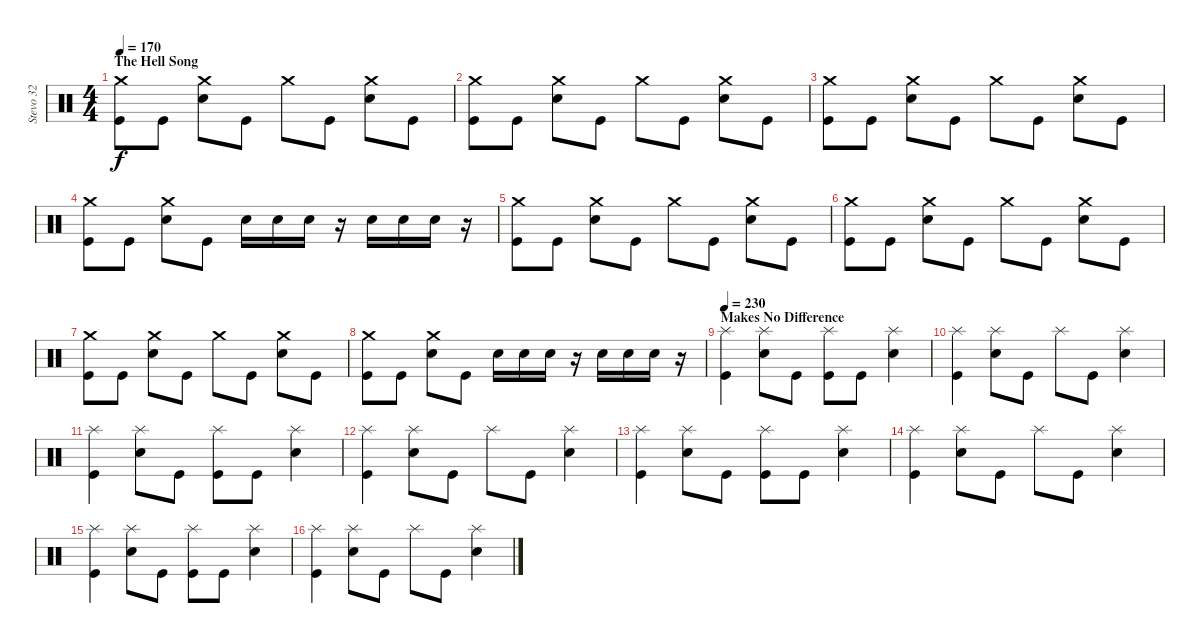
\track ("Stevo 32" "Stevo 32") {instrument percussion}
\staff {score}
\articulation defaults
\ts (4 4)
\section ("" "The Hell Song")
\tempo 170
\clef neutral
\ks c
("Crash medium (hit)" "Kick (hit)").8{dy f} "Kick (hit)".8 ("Crash medium (hit)" "Snare (hit) 2").8 "Kick (hit)".8 "Crash medium (hit)".8 "Kick (hit)".8 ("Crash medium (hit)" "Snare (hit) 2").8 "Kick (hit)".8 |
("Crash medium (hit)" "Kick (hit)").8 "Kick (hit)".8 ("Crash medium (hit)" "Snare (hit) 2").8 "Kick (hit)".8 "Crash medium (hit)".8 "Kick (hit)".8 ("Crash medium (hit)" "Snare (hit) 2").8 "Kick (hit)".8 |
("Crash medium (hit)" "Kick (hit)").8 "Kick (hit)".8 ("Crash medium (hit)" "Snare (hit) 2").8 "Kick (hit)".8 "Crash medium (hit)".8 "Kick (hit)".8 ("Crash medium (hit)" "Snare (hit) 2").8 "Kick (hit)".8 |
("Crash medium (hit)" "Kick (hit)").8 "Kick (hit)".8 ("Crash medium (hit)" "Snare (hit) 2").8 "Kick (hit)".8 "Snare (hit) 2".16 "Snare (hit) 2".16 "Snare (hit) 2".16 r.16 "Snare (hit) 2".16 "Snare (hit) 2".16 "Snare (hit) 2".16 r.16 |
("Crash medium (hit)" "Kick (hit)").8 "Kick (hit)".8 ("Crash medium (hit)" "Snare (hit) 2").8 "Kick (hit)".8 "Crash medium (hit)".8 "Kick (hit)".8 ("Crash medium (hit)" "Snare (hit) 2").8 "Kick (hit)".8 |
("Crash medium (hit)" "Kick (hit)").8 "Kick (hit)".8 ("Crash medium (hit)" "Snare (hit) 2").8 "Kick (hit)".8 "Crash medium (hit)".8 "Kick (hit)".8 ("Crash medium (hit)" "Snare (hit) 2").8 "Kick (hit)".8 |
("Crash medium (hit)" "Kick (hit)").8 "Kick (hit)".8 ("Crash medium (hit)" "Snare (hit) 2").8 "Kick (hit)".8 "Crash medium (hit)".8 "Kick (hit)".8 ("Crash medium (hit)" "Snare (hit) 2").8 "Kick (hit)".8 |
("Crash medium (hit)" "Kick (hit)").8 "Kick (hit)".8 ("Crash medium (hit)" "Snare (hit) 2").8 "Kick (hit)".8 "Snare (hit) 2".16 "Snare (hit) 2".16 "Snare (hit) 2".16 r.16 "Snare (hit) 2".16 "Snare (hit) 2".16 "Snare (hit) 2".16 r.16 |
\section ("" "Makes No Difference")
\tempo 230
("Splash (hit)" "Kick (hit)").4 ("Splash (hit)" "Snare (hit) 2").8 "Kick (hit)".8 ("Splash (hit)" "Kick (hit)").8 "Kick (hit)".8 ("Splash (hit)" "Snare (hit) 2").4 |
("Splash (hit)" "Kick (hit)").4 ("Splash (hit)" "Snare (hit) 2").8 "Kick (hit)".8 "Splash (hit)".8 "Kick (hit)".8 ("Splash (hit)" "Snare (hit) 2").4 |
("Splash (hit)" "Kick (hit)").4 ("Splash (hit)" "Snare (hit) 2").8 "Kick (hit)".8 ("Splash (hit)" "Kick (hit)").8 "Kick (hit)".8 ("Splash (hit)" "Snare (hit) 2").4 |
("Splash (hit)" "Kick (hit)").4 ("Splash (hit)" "Snare (hit) 2").8 "Kick (hit)".8 "Splash (hit)".8 "Kick (hit)".8 ("Splash (hit)" "Snare (hit) 2").4 |
("Splash (hit)" "Kick (hit)").4 ("Splash (hit)" "Snare (hit) 2").8 "Kick (hit)".8 ("Splash (hit)" "Kick (hit)").8 "Kick (hit)".8 ("Splash (hit)" "Snare (hit) 2").4 |
("Splash (hit)" "Kick (hit)").4 ("Splash (hit)" "Snare (hit) 2").8 "Kick (hit)".8 "Splash (hit)".8 "Kick (hit)".8 ("Splash (hit)" "Snare (hit) 2").4 |
("Splash (hit)" "Kick (hit)").4 ("Splash (hit)" "Snare (hit) 2").8 "Kick (hit)".8 ("Splash (hit)" "Kick (hit)").8 "Kick (hit)".8 ("Splash (hit)" "Snare (hit) 2").4 |
("Splash (hit)" "Kick (hit)").4 ("Splash (hit)" "Snare (hit) 2").8 "Kick (hit)".8 "Splash (hit)".8 "Kick (hit)".8 ("Splash (hit)" "Snare (hit) 2").4
